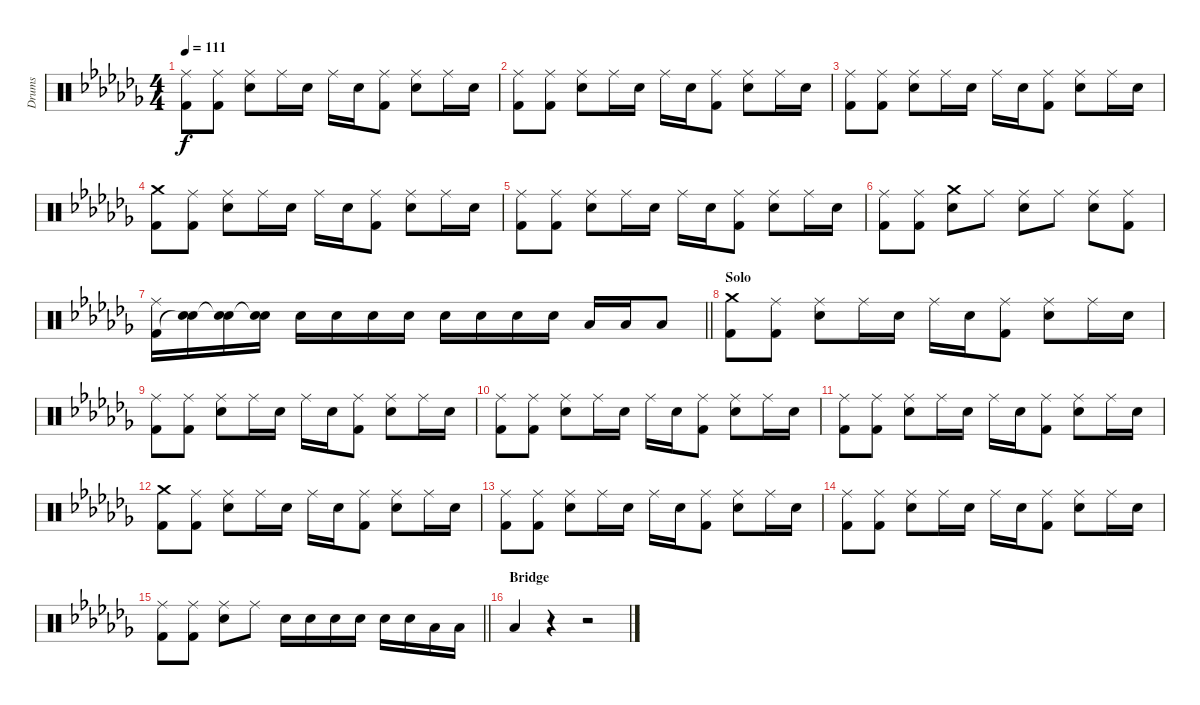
\track ("Drums" "Drums") {instrument percussion}
\staff {score}
\articulation defaults
\ts (4 4)
\tempo 111
\clef neutral
\ks abminor
("Ride (middle)" "Kick (hit) 2").8{dy f} ("Ride (middle)" "Kick (hit) 2").8 ("Ride (middle)" "Electric Snare (hit)").8 "Ride (middle)".16 "Electric Snare (hit)".16 "Ride (middle)".16 "Electric Snare (hit)".16 ("Ride (middle)" "Kick (hit) 2").8 ("Ride (middle)" "Electric Snare (hit)").8 "Ride (middle)".16 "Electric Snare (hit)".16 |
("Ride (middle)" "Kick (hit) 2").8 ("Ride (middle)" "Kick (hit) 2").8 ("Ride (middle)" "Electric Snare (hit)").8 "Ride (middle)".16 "Electric Snare (hit)".16 "Ride (middle)".16 "Electric Snare (hit)".16 ("Ride (middle)" "Kick (hit) 2").8 ("Ride (middle)" "Electric Snare (hit)").8 "Ride (middle)".16 "Electric Snare (hit)".16 |
("Ride (middle)" "Kick (hit) 2").8 ("Ride (middle)" "Kick (hit) 2").8 ("Ride (middle)" "Electric Snare (hit)").8 "Ride (middle)".16 "Electric Snare (hit)".16 "Ride (middle)".16 "Electric Snare (hit)".16 ("Ride (middle)" "Kick (hit) 2").8 ("Ride (middle)" "Electric Snare (hit)").8 "Ride (middle)".16 "Electric Snare (hit)".16 |
("Crash medium (hit)" "Kick (hit) 2").8 ("Ride (middle)" "Kick (hit) 2").8 ("Ride (middle)" "Electric Snare (hit)").8 "Ride (middle)".16 "Electric Snare (hit)".16 "Ride (middle)".16 "Electric Snare (hit)".16 ("Ride (middle)" "Kick (hit) 2").8 ("Ride (middle)" "Electric Snare (hit)").8 "Ride (middle)".16 "Electric Snare (hit)".16 |
("Ride (middle)" "Kick (hit) 2").8 ("Ride (middle)" "Kick (hit) 2").8 ("Ride (middle)" "Electric Snare (hit)").8 "Ride (middle)".16 "Electric Snare (hit)".16 "Ride (middle)".16 "Electric Snare (hit)".16 ("Ride (middle)" "Kick (hit) 2").8 ("Ride (middle)" "Electric Snare (hit)").8 "Ride (middle)".16 "Electric Snare (hit)".16 |
("Ride (middle)" "Kick (hit) 2").8 ("Ride (middle)" "Kick (hit) 2").8 ("Crash medium (hit)" "Electric Snare (hit)").8 "Ride (middle)".8 ("Ride (middle)" "Electric Snare (hit)").8 "Ride (middle)".8 ("Ride (middle)" "Electric Snare (hit)").8 ("Ride (middle)" "Kick (hit) 2").8 |
\barLineRight lightlight
("Ride (middle)" "Kick (hit) 2").16 ("Electric Snare (hit)" "Snare (hit)"{t}).16 ("Electric Snare (hit)" "Snare (hit)"{t}).16 ("Electric Snare (hit)" "Snare (hit)"{t}).16 "Electric Snare (hit)".16 "Electric Snare (hit)".16 "Electric Snare (hit)".16 "Electric Snare (hit)".16 "Electric Snare (hit)".16 "Electric Snare (hit)".16 "Electric Snare (hit)".16 "Electric Snare (hit)".16 "Low Tom (hit)".16 "Low Tom (hit)".16 "Low Floor Tom (hit)".8 |
\section ("" "Solo")
("Crash medium (hit)" "Kick (hit) 2").8 ("Ride (middle)" "Kick (hit) 2").8 ("Ride (middle)" "Electric Snare (hit)").8 "Ride (middle)".16 "Electric Snare (hit)".16 "Ride (middle)".16 "Electric Snare (hit)".16 ("Ride (middle)" "Kick (hit) 2").8 ("Ride (middle)" "Electric Snare (hit)").8 "Ride (middle)".16 "Electric Snare (hit)".16 |
("Ride (middle)" "Kick (hit) 2").8 ("Ride (middle)" "Kick (hit) 2").8 ("Ride (middle)" "Electric Snare (hit)").8 "Ride (middle)".16 "Electric Snare (hit)".16 "Ride (middle)".16 "Electric Snare (hit)".16 ("Ride (middle)" "Kick (hit) 2").8 ("Ride (middle)" "Electric Snare (hit)").8 "Ride (middle)".16 "Electric Snare (hit)".16 |
("Ride (middle)" "Kick (hit) 2").8 ("Ride (middle)" "Kick (hit) 2").8 ("Ride (middle)" "Electric Snare (hit)").8 "Ride (middle)".16 "Electric Snare (hit)".16 "Ride (middle)".16 "Electric Snare (hit)".16 ("Ride (middle)" "Kick (hit) 2").8 ("Ride (middle)" "Electric Snare (hit)").8 "Ride (middle)".16 "Electric Snare (hit)".16 |
("Ride (middle)" "Kick (hit) 2").8 ("Ride (middle)" "Kick (hit) 2").8 ("Ride (middle)" "Electric Snare (hit)").8 "Ride (middle)".16 "Electric Snare (hit)".16 "Ride (middle)".16 "Electric Snare (hit)".16 ("Ride (middle)" "Kick (hit) 2").8 ("Ride (middle)" "Electric Snare (hit)").8 "Ride (middle)".16 "Electric Snare (hit)".16 |
("Crash medium (hit)" "Kick (hit) 2").8 ("Ride (middle)" "Kick (hit) 2").8 ("Ride (middle)" "Electric Snare (hit)").8 "Ride (middle)".16 "Electric Snare (hit)".16 "Ride (middle)".16 "Electric Snare (hit)".16 ("Ride (middle)" "Kick (hit) 2").8 ("Ride (middle)" "Electric Snare (hit)").8 "Ride (middle)".16 "Electric Snare (hit)".16 |
("Ride (middle)" "Kick (hit) 2").8 ("Ride (middle)" "Kick (hit) 2").8 ("Ride (middle)" "Electric Snare (hit)").8 "Ride (middle)".16 "Electric Snare (hit)".16 "Ride (middle)".16 "Electric Snare (hit)".16 ("Ride (middle)" "Kick (hit) 2").8 ("Ride (middle)" "Electric Snare (hit)").8 "Ride (middle)".16 "Electric Snare (hit)".16 |
("Ride (middle)" "Kick (hit) 2").8 ("Ride (middle)" "Kick (hit) 2").8 ("Ride (middle)" "Electric Snare (hit)").8 "Ride (middle)".16 "Electric Snare (hit)".16 "Ride (middle)".16 "Electric Snare (hit)".16 ("Ride (middle)" "Kick (hit) 2").8 ("Ride (middle)" "Electric Snare (hit)").8 "Ride (middle)".16 "Electric Snare (hit)".16 |
\barLineRight lightlight
("Ride (middle)" "Kick (hit) 2").8 ("Ride (middle)" "Kick (hit) 2").8 ("Ride (middle)" "Electric Snare (hit)").8 "Ride (middle)".8 "Electric Snare (hit)".16 "Electric Snare (hit)".16 "Electric Snare (hit)".16 "Electric Snare (hit)".16 "Electric Snare (hit)".16 "Electric Snare (hit)".16 "Low Tom (hit)".16 "Low Tom (hit)".16 |
\section ("" "Bridge")
"Low Floor Tom (hit)".4 r.4 r.2
